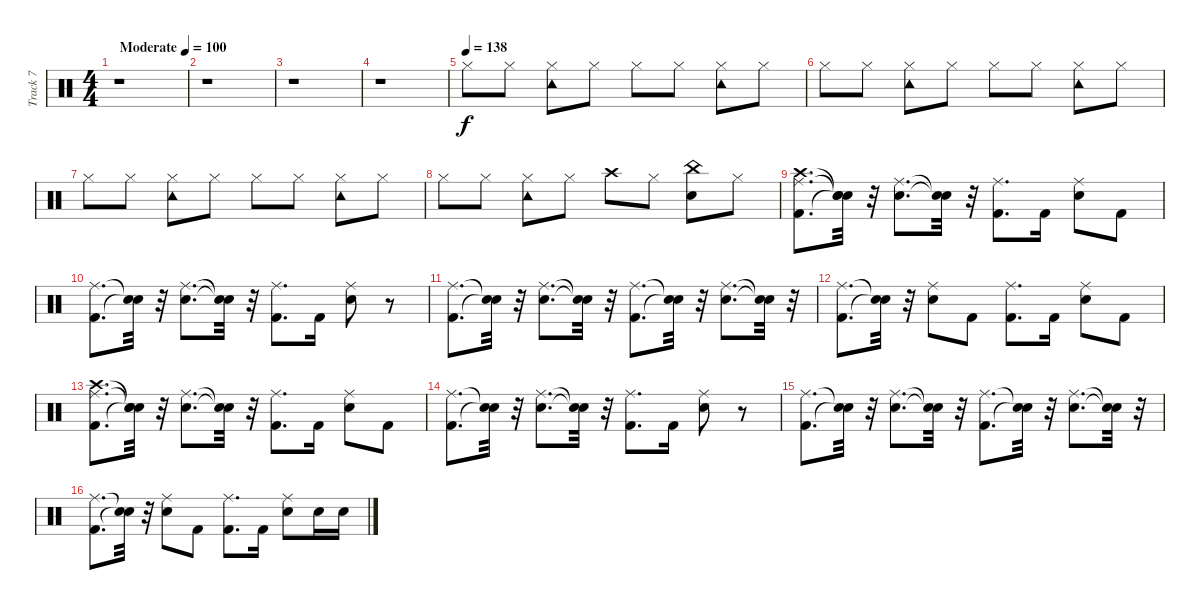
\track ("Track 7" "Track 7") {instrument percussion}
\staff {score}
\articulation defaults
\ts (4 4)
\tempo (100 "Moderate")
\clef neutral
\ks c
r.1{dy f} |
r.1 |
r.1 |
r.1 |
\tempo (138)
"Hi-Hat (closed)".8 "Hi-Hat (closed)".8 ("Hi-Hat (closed)" "Tambourine (hit)").8 "Hi-Hat (closed)".8 "Hi-Hat (closed)".8 "Hi-Hat (closed)".8 ("Hi-Hat (closed)" "Tambourine (hit)").8 "Hi-Hat (closed)".8 |
"Hi-Hat (closed)".8 "Hi-Hat (closed)".8 ("Hi-Hat (closed)" "Tambourine (hit)").8 "Hi-Hat (closed)".8 "Hi-Hat (closed)".8 "Hi-Hat (closed)".8 ("Hi-Hat (closed)" "Tambourine (hit)").8 "Hi-Hat (closed)".8 |
"Hi-Hat (closed)".8 "Hi-Hat (closed)".8 ("Hi-Hat (closed)" "Tambourine (hit)").8 "Hi-Hat (closed)".8 "Hi-Hat (closed)".8 "Hi-Hat (closed)".8 ("Hi-Hat (closed)" "Tambourine (hit)").8 "Hi-Hat (closed)".8 |
"Hi-Hat (closed)".8 "Hi-Hat (closed)".8 ("Hi-Hat (closed)" "Tambourine (hit)").8 "Hi-Hat (closed)".8 "Crash high (hit)".8 "Hi-Hat (closed)".8 ("Snare (hit) 2" "China (hit)").8 "Hi-Hat (closed)".8 |
("Kick (hit) 2" "Crash high (hit)" "Ride (middle)").8{d} ("Snare (hit)"{t} "Snare (hit)"{t} "Snare (hit)"{t}).32 r.32 ("Snare (hit) 2" "Ride (middle)").8{d} ("Snare (hit)"{t} "Snare (hit)"{t}).32 r.32 ("Kick (hit) 2" "Ride (middle)").8{d} "Kick (hit) 2".16 ("Snare (hit) 2" "Ride (middle)").8 "Kick (hit) 2".8 |
("Kick (hit) 2" "Ride (middle)").8{d} ("Snare (hit)"{t} "Snare (hit)"{t}).32 r.32 ("Snare (hit) 2" "Ride (middle)").8{d} ("Snare (hit)"{t} "Snare (hit)"{t}).32 r.32 ("Kick (hit) 2" "Ride (middle)").8{d} "Kick (hit) 2".16 ("Snare (hit) 2" "Ride (middle)").8 r.8 |
("Kick (hit) 2" "Ride (middle)").8{d} ("Snare (hit)"{t} "Snare (hit)"{t}).32 r.32 ("Snare (hit) 2" "Ride (middle)").8{d} ("Snare (hit)"{t} "Snare (hit)"{t}).32 r.32 ("Kick (hit) 2" "Ride (middle)").8{d} ("Snare (hit)"{t} "Snare (hit)"{t}).32 r.32 ("Snare (hit) 2" "Ride (middle)").8{d} ("Snare (hit)"{t} "Snare (hit)"{t}).32 r.32 |
("Kick (hit) 2" "Ride (middle)").8{d} ("Snare (hit)"{t} "Snare (hit)"{t}).32 r.32 ("Snare (hit) 2" "Ride (middle)").8 "Kick (hit) 2".8 ("Kick (hit) 2" "Ride (middle)").8{d} "Kick (hit) 2".16 ("Snare (hit) 2" "Ride (middle)").8 "Kick (hit) 2".8 |
("Kick (hit) 2" "Crash high (hit)" "Ride (middle)").8{d} ("Snare (hit)"{t} "Snare (hit)"{t} "Snare (hit)"{t}).32 r.32 ("Snare (hit) 2" "Ride (middle)").8{d} ("Snare (hit)"{t} "Snare (hit)"{t}).32 r.32 ("Kick (hit) 2" "Ride (middle)").8{d} "Kick (hit) 2".16 ("Snare (hit) 2" "Ride (middle)").8 "Kick (hit) 2".8 |
("Kick (hit) 2" "Ride (middle)").8{d} ("Snare (hit)"{t} "Snare (hit)"{t}).32 r.32 ("Snare (hit) 2" "Ride (middle)").8{d} ("Snare (hit)"{t} "Snare (hit)"{t}).32 r.32 ("Kick (hit) 2" "Ride (middle)").8{d} "Kick (hit) 2".16 ("Snare (hit) 2" "Ride (middle)").8 r.8 |
("Kick (hit) 2" "Ride (middle)").8{d} ("Snare (hit)"{t} "Snare (hit)"{t}).32 r.32 ("Snare (hit) 2" "Ride (middle)").8{d} ("Snare (hit)"{t} "Snare (hit)"{t}).32 r.32 ("Kick (hit) 2" "Ride (middle)").8{d} ("Snare (hit)"{t} "Snare (hit)"{t}).32 r.32 ("Snare (hit) 2" "Ride (middle)").8{d} ("Snare (hit)"{t} "Snare (hit)"{t}).32 r.32 |
("Kick (hit) 2" "Ride (middle)").8{d} ("Snare (hit)"{t} "Snare (hit)"{t}).32 r.32 ("Snare (hit) 2" "Ride (middle)").8 "Kick (hit) 2".8 ("Kick (hit) 2" "Ride (middle)").8{d} "Kick (hit) 2".16 ("Snare (hit) 2" "Ride (middle)").8 "Snare (hit) 2".16 "Snare (hit) 2".16
